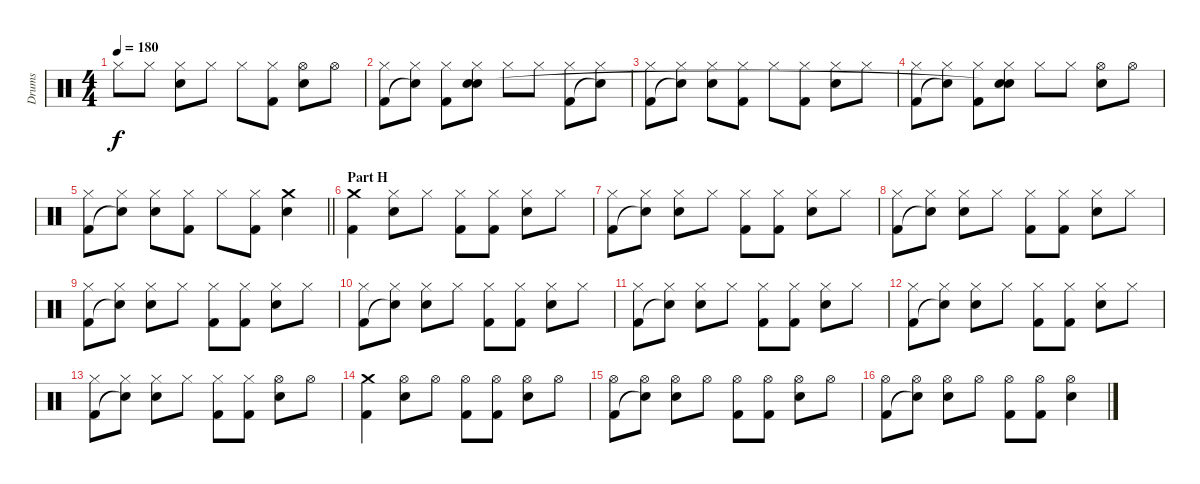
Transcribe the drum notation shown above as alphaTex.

\track ("Drums" "Drums") {instrument percussion}
\staff {score}
\articulation defaults
\ts (4 4)
\tempo 180
\clef neutral
\ks c "Hi-Hat (closed)".8{dy f} "Hi-Hat (closed)".8
("Hi-Hat (closed)" "Electric Snare (hit)").8 "Hi-Hat (closed)".8 "Hi-Hat (closed)".8 ("Hi-Hat (closed)" "Kick (hit) 2").8 ("Hi-Hat (open)" "Electric Snare (hit)").8 "Hi-Hat (open)".8 |
("Hi-Hat (closed)" "Kick (hit) 2").8 ("Hi-Hat (closed)" "Snare (hit)"{t}).8 ("Hi-Hat (closed)" "Kick (hit) 2").8 ("Hi-Hat (closed)" "Electric Snare (hit)" "Snare (hit)"{t}).8 "Hi-Hat (closed)".8 "Hi-Hat (closed)".8 ("Hi-Hat (closed)" "Kick (hit) 2").8 ("Hi-Hat (closed)" "Snare (hit)"{t}).8 |
("Hi-Hat (closed)" "Kick (hit) 2").8 ("Hi-Hat (closed)" "Snare (hit)"{t}).8 ("Hi-Hat (closed)" "Electric Snare (hit)").8 ("Hi-Hat (closed)" "Kick (hit) 2").8 "Hi-Hat (closed)".8 ("Hi-Hat (closed)" "Kick (hit) 2").8 ("Hi-Hat (closed)" "Electric Snare (hit)").8 "Hi-Hat (closed)".8 |
("Hi-Hat (closed)" "Kick (hit) 2").8 ("Hi-Hat (closed)" "Snare (hit)"{t}).8 ("Hi-Hat (closed)" "Kick (hit) 2").8 ("Hi-Hat (closed)" "Electric Snare (hit)" "Snare (hit)"{t}).8 "Hi-Hat (closed)".8 "Hi-Hat (closed)".8 ("Hi-Hat (open)" "Electric Snare (hit)").8 "Hi-Hat (open)".8 |
\barLineRight lightlight
("Hi-Hat (closed)" "Kick (hit) 2").8 ("Hi-Hat (closed)" "Snare (hit)"{t}).8 ("Hi-Hat (closed)" "Electric Snare (hit)").8 ("Hi-Hat (closed)" "Kick (hit) 2").8 "Hi-Hat (closed)".8 ("Hi-Hat (closed)" "Kick (hit) 2").8 ("Crash medium (hit)" "Electric Snare (hit)").4 |
\section ("" "Part H")
("Crash medium (hit)" "Kick (hit) 2").4 ("Hi-Hat (closed)" "Electric Snare (hit)").8 "Hi-Hat (closed)".8 ("Hi-Hat (closed)" "Kick (hit) 2").8 ("Hi-Hat (closed)" "Kick (hit) 2").8 ("Hi-Hat (closed)" "Electric Snare (hit)").8 "Hi-Hat (closed)".8 |
("Hi-Hat (closed)" "Kick (hit) 2").8 ("Hi-Hat (closed)" "Snare (hit)"{t}).8 ("Hi-Hat (closed)" "Electric Snare (hit)").8 "Hi-Hat (closed)".8 ("Hi-Hat (closed)" "Kick (hit) 2").8 ("Hi-Hat (closed)" "Kick (hit) 2").8 ("Hi-Hat (closed)" "Electric Snare (hit)").8 "Hi-Hat (closed)".8 |
("Hi-Hat (closed)" "Kick (hit) 2").8 ("Hi-Hat (closed)" "Snare (hit)"{t}).8 ("Hi-Hat (closed)" "Electric Snare (hit)").8 "Hi-Hat (closed)".8 ("Hi-Hat (closed)" "Kick (hit) 2").8 ("Hi-Hat (closed)" "Kick (hit) 2").8 ("Hi-Hat (closed)" "Electric Snare (hit)").8 "Hi-Hat (closed)".8 |
("Hi-Hat (closed)" "Kick (hit) 2").8 ("Hi-Hat (closed)" "Snare (hit)"{t}).8 ("Hi-Hat (closed)" "Electric Snare (hit)").8 "Hi-Hat (closed)".8 ("Hi-Hat (closed)" "Kick (hit) 2").8 ("Hi-Hat (closed)" "Kick (hit) 2").8 ("Hi-Hat (closed)" "Electric Snare (hit)").8 "Hi-Hat (closed)".8 |
("Hi-Hat (closed)" "Kick (hit) 2").8 ("Hi-Hat (closed)" "Snare (hit)"{t}).8 ("Hi-Hat (closed)" "Electric Snare (hit)").8 "Hi-Hat (closed)".8 ("Hi-Hat (closed)" "Kick (hit) 2").8 ("Hi-Hat (closed)" "Kick (hit) 2").8 ("Hi-Hat (closed)" "Electric Snare (hit)").8 "Hi-Hat (closed)".8 |
("Hi-Hat (closed)" "Kick (hit) 2").8 ("Hi-Hat (closed)" "Snare (hit)"{t}).8 ("Hi-Hat (closed)" "Electric Snare (hit)").8 "Hi-Hat (closed)".8 ("Hi-Hat (closed)" "Kick (hit) 2").8 ("Hi-Hat (closed)" "Kick (hit) 2").8 ("Hi-Hat (closed)" "Electric Snare (hit)").8 "Hi-Hat (closed)".8 |
("Hi-Hat (closed)" "Kick (hit) 2").8 ("Hi-Hat (closed)" "Snare (hit)"{t}).8 ("Hi-Hat (closed)" "Electric Snare (hit)").8 "Hi-Hat (closed)".8 ("Hi-Hat (closed)" "Kick (hit) 2").8 ("Hi-Hat (closed)" "Kick (hit) 2").8 ("Hi-Hat (closed)" "Electric Snare (hit)").8 "Hi-Hat (closed)".8 |
("Hi-Hat (closed)" "Kick (hit) 2").8 ("Hi-Hat (closed)" "Snare (hit)"{t}).8 ("Hi-Hat (closed)" "Electric Snare (hit)").8 "Hi-Hat (closed)".8 ("Hi-Hat (closed)" "Kick (hit) 2").8 ("Hi-Hat (closed)" "Kick (hit) 2").8 ("Hi-Hat (open)" "Electric Snare (hit)").8 "Hi-Hat (open)".8 |
("Crash medium (hit)" "Kick (hit) 2").4 ("Hi-Hat (open)" "Electric Snare (hit)").8 "Hi-Hat (open)".8 ("Hi-Hat (open)" "Kick (hit) 2").8 ("Hi-Hat (open)" "Kick (hit) 2").8 ("Hi-Hat (open)" "Electric Snare (hit)").8 "Hi-Hat (open)".8 |
("Hi-Hat (open)" "Kick (hit) 2").8 ("Hi-Hat (open)" "Snare (hit)"{t}).8 ("Hi-Hat (open)" "Electric Snare (hit)").8 "Hi-Hat (open)".8 ("Hi-Hat (open)" "Kick (hit) 2").8 ("Hi-Hat (open)" "Kick (hit) 2").8 ("Hi-Hat (open)" "Electric Snare (hit)").8 "Hi-Hat (open)".8 |
("Hi-Hat (open)" "Kick (hit) 2").8 ("Hi-Hat (open)" "Snare (hit)"{t}).8 ("Hi-Hat (open)" "Electric Snare (hit)").8 "Hi-Hat (open)".8 ("Hi-Hat (open)" "Kick (hit) 2").8 ("Hi-Hat (open)" "Kick (hit) 2").8 ("Hi-Hat (open)" "Electric Snare (hit)").4
